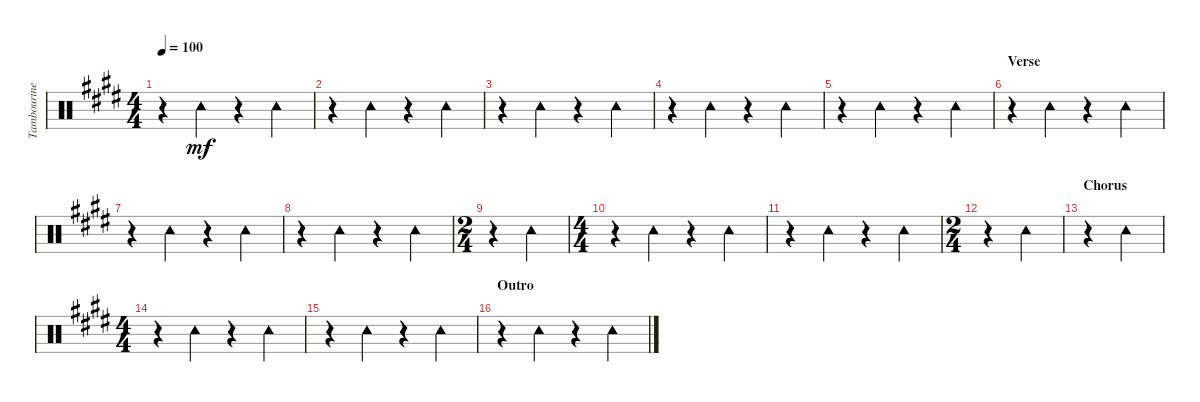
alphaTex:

\track ("Tambourine" "Tambourine") {instrument percussion}
\staff {score}
\articulation defaults
\ts (4 4)
\tempo 100
\clef neutral
\ks e
r.4{dy mf} "Tambourine (hit)".4 r.4 "Tambourine (hit)".4 |
r.4 "Tambourine (hit)".4 r.4 "Tambourine (hit)".4 |
r.4 "Tambourine (hit)".4 r.4 "Tambourine (hit)".4 |
r.4 "Tambourine (hit)".4 r.4 "Tambourine (hit)".4 |
r.4 "Tambourine (hit)".4 r.4 "Tambourine (hit)".4 |
\section ("" "Verse")
r.4 "Tambourine (hit)".4 r.4 "Tambourine (hit)".4 |
r.4 "Tambourine (hit)".4 r.4 "Tambourine (hit)".4 |
r.4 "Tambourine (hit)".4 r.4 "Tambourine (hit)".4 |
\ts (2 4)
r.4 "Tambourine (hit)".4 |
\ts (4 4)
r.4 "Tambourine (hit)".4 r.4 "Tambourine (hit)".4 |
r.4 "Tambourine (hit)".4 r.4 "Tambourine (hit)".4 |
\ts (2 4)
r.4 "Tambourine (hit)".4 |
\section ("" "Chorus")
r.4 "Tambourine (hit)".4 |
\ts (4 4)
r.4 "Tambourine (hit)".4 r.4 "Tambourine (hit)".4 |
r.4 "Tambourine (hit)".4 r.4 "Tambourine (hit)".4 |
\section ("" "Outro")
r.4 "Tambourine (hit)".4 r.4 "Tambourine (hit)".4
